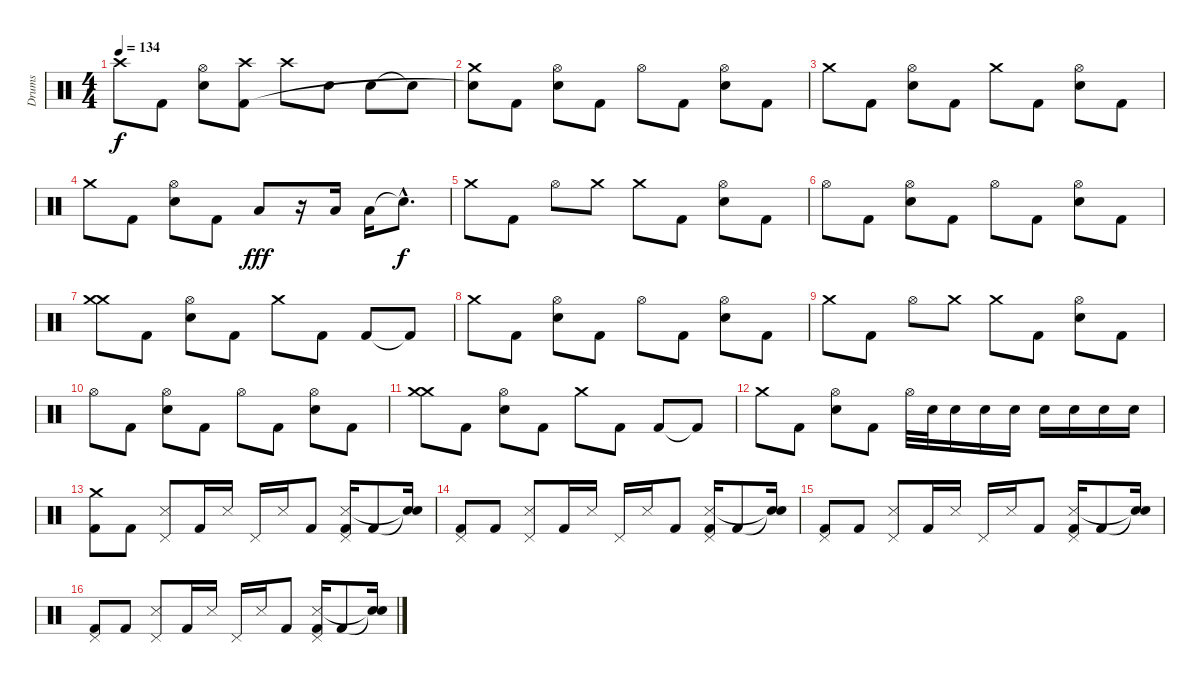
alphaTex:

\track ("Drums" "Drums") {instrument percussion}
\staff {score}
\articulation defaults
\ts (4 4)
\tempo 134
\clef neutral
\ks c "Crash high (hit)".8{dy f} "Kick (hit) 2".8
("Hi-Hat (open)" "Electric Snare (hit)").8 ("Crash high (hit)" "Kick (hit) 2").8 "Crash high (hit)".8 "Electric Snare (hit)".8 "Electric Snare (hit)".8 "Snare (hit)"{t}.8 |
("Crash medium (hit)" "Snare (hit)"{t}).8 "Kick (hit) 2".8 ("Hi-Hat (open)" "Electric Snare (hit)").8 "Kick (hit) 2".8 "Hi-Hat (open)".8 "Kick (hit) 2".8 ("Hi-Hat (open)" "Electric Snare (hit)").8 "Kick (hit) 2".8 |
"Crash medium (hit)".8 "Kick (hit) 2".8 ("Hi-Hat (open)" "Electric Snare (hit)").8 "Kick (hit) 2".8 "Crash medium (hit)".8 "Kick (hit) 2".8 ("Hi-Hat (open)" "Electric Snare (hit)").8 "Kick (hit) 2".8 |
"Crash medium (hit)".8 "Kick (hit) 2".8 ("Hi-Hat (open)" "Electric Snare (hit)").8 "Kick (hit) 2".8 "Low Floor Tom (hit)".8{dy fff} r.16 "Low Floor Tom (hit)".16 "Low Floor Tom (hit)".16 "Snare (hit)"{hac t}.8{d dy f} |
"Crash medium (hit)".8 "Kick (hit) 2".8 "Hi-Hat (open)".8 "Crash medium (hit)".8 "Crash medium (hit)".8 "Kick (hit) 2".8 ("Hi-Hat (open)" "Electric Snare (hit)").8 "Kick (hit) 2".8 |
"Hi-Hat (open)".8 "Kick (hit) 2".8 ("Hi-Hat (open)" "Electric Snare (hit)").8 "Kick (hit) 2".8 "Hi-Hat (open)".8 "Kick (hit) 2".8 ("Hi-Hat (open)" "Electric Snare (hit)").8 "Kick (hit) 2".8 |
("Crash medium (hit)" "Crash medium (hit)").8 "Kick (hit) 2".8 ("Hi-Hat (open)" "Electric Snare (hit)").8 "Kick (hit) 2".8 "Crash medium (hit)".8 "Kick (hit) 2".8 "Kick (hit) 2".8 "Kick (hit) 2"{t}.8 |
"Crash medium (hit)".8 "Kick (hit) 2".8 ("Hi-Hat (open)" "Electric Snare (hit)").8 "Kick (hit) 2".8 "Hi-Hat (open)".8 "Kick (hit) 2".8 ("Hi-Hat (open)" "Electric Snare (hit)").8 "Kick (hit) 2".8 |
"Crash medium (hit)".8 "Kick (hit) 2".8 "Hi-Hat (open)".8 "Crash medium (hit)".8 "Crash medium (hit)".8 "Kick (hit) 2".8 ("Hi-Hat (open)" "Electric Snare (hit)").8 "Kick (hit) 2".8 |
"Hi-Hat (open)".8 "Kick (hit) 2".8 ("Hi-Hat (open)" "Electric Snare (hit)").8 "Kick (hit) 2".8 "Hi-Hat (open)".8 "Kick (hit) 2".8 ("Hi-Hat (open)" "Electric Snare (hit)").8 "Kick (hit) 2".8 |
("Crash medium (hit)" "Crash medium (hit)").8 "Kick (hit) 2".8 ("Hi-Hat (open)" "Electric Snare (hit)").8 "Kick (hit) 2".8 "Crash medium (hit)".8 "Kick (hit) 2".8 "Kick (hit) 2".8 "Kick (hit) 2"{t}.8 |
"Crash medium (hit)".8 "Kick (hit) 2".8 ("Hi-Hat (open)" "Electric Snare (hit)").8 "Kick (hit) 2".8 "Hi-Hat (open)".32 "Electric Snare (hit)".32 "Electric Snare (hit)".16 "Electric Snare (hit)".16 "Electric Snare (hit)".16 "Electric Snare (hit)".16 "Electric Snare (hit)".16 "Electric Snare (hit)".16 "Electric Snare (hit)".16 |
("Crash medium (hit)" "Kick (hit) 2").8 "Kick (hit) 2".8 ("Snare (side stick) 3" "Pedal Hi-Hat (hit)").8 "Kick (hit) 2".16 "Snare (side stick) 3".16 "Pedal Hi-Hat (hit)".16 "Snare (side stick) 3".16 "Kick (hit) 2".8 ("Pedal Hi-Hat (hit)" "Snare (side stick) 3" "Kick (hit) 2").16 "Kick (hit) 2".8 ("Snare (hit)"{t} "Snare (hit)"{t}).16 |
("Pedal Hi-Hat (hit)" "Kick (hit) 2").8 "Kick (hit) 2".8 ("Snare (side stick) 3" "Pedal Hi-Hat (hit)").8 "Kick (hit) 2".16 "Snare (side stick) 3".16 "Pedal Hi-Hat (hit)".16 "Snare (side stick) 3".16 "Kick (hit) 2".8 ("Pedal Hi-Hat (hit)" "Snare (side stick) 3" "Kick (hit) 2").16 "Kick (hit) 2".8 ("Snare (hit)"{t} "Snare (hit)"{t}).16 |
("Pedal Hi-Hat (hit)" "Kick (hit) 2").8 "Kick (hit) 2".8 ("Snare (side stick) 3" "Pedal Hi-Hat (hit)").8 "Kick (hit) 2".16 "Snare (side stick) 3".16 "Pedal Hi-Hat (hit)".16 "Snare (side stick) 3".16 "Kick (hit) 2".8 ("Pedal Hi-Hat (hit)" "Snare (side stick) 3" "Kick (hit) 2").16 "Kick (hit) 2".8 ("Snare (hit)"{t} "Snare (hit)"{t}).16 |
("Pedal Hi-Hat (hit)" "Kick (hit) 2").8 "Kick (hit) 2".8 ("Snare (side stick) 3" "Pedal Hi-Hat (hit)").8 "Kick (hit) 2".16 "Snare (side stick) 3".16 "Pedal Hi-Hat (hit)".16 "Snare (side stick) 3".16 "Kick (hit) 2".8 ("Pedal Hi-Hat (hit)" "Snare (side stick) 3" "Kick (hit) 2").16 "Kick (hit) 2".8 ("Snare (hit)"{t} "Snare (hit)"{t}).16
